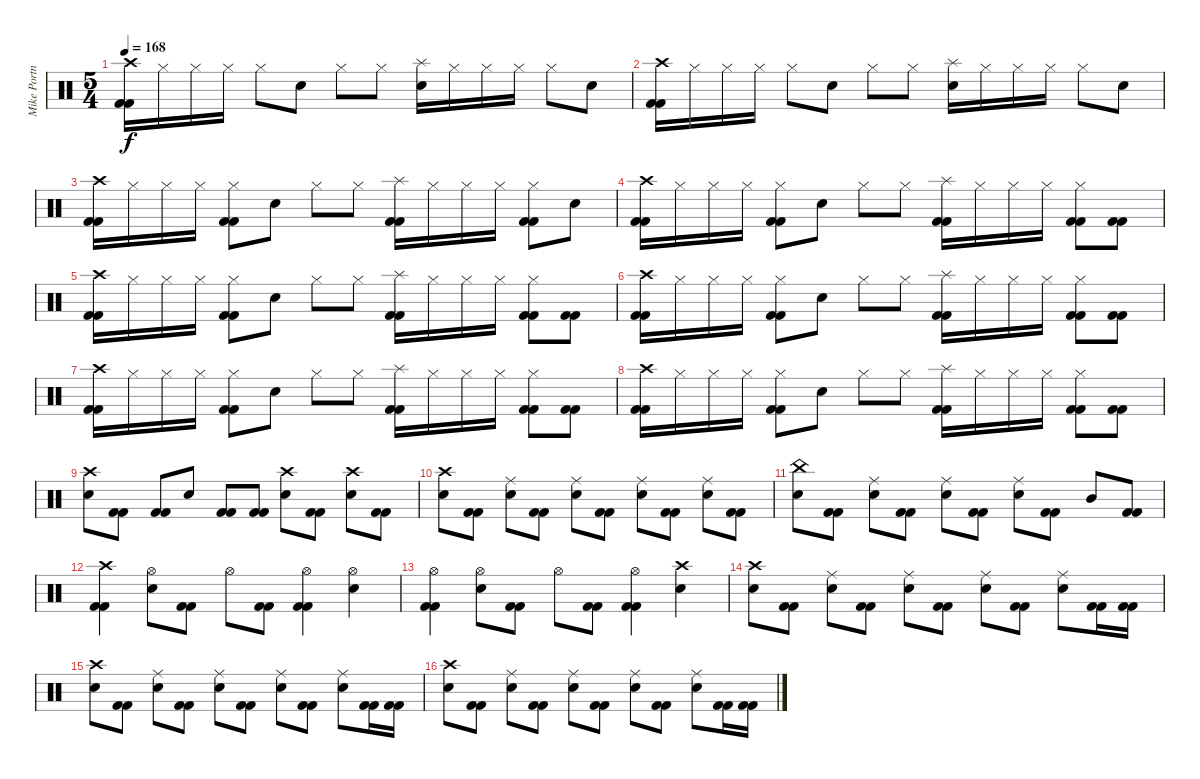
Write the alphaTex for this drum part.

\track ("Mike Portnoy - Drum" "Mike Portn") {instrument percussion}
\staff {score}
\articulation defaults
\ts (5 4)
\tempo 168
\clef neutral
\ks c
("Crash high (hit)" "Kick (hit) 2" "Kick (hit) 2").16{dy f} "Hi-Hat (closed)".16 "Hi-Hat (closed)".16 "Hi-Hat (closed)".16 "Hi-Hat (closed)".8 "Snare (hit) 2".8 "Hi-Hat (closed)".8 "Hi-Hat (closed)".8 ("Splash (hit)" "Snare (hit) 2").16 "Hi-Hat (closed)".16 "Hi-Hat (closed)".16 "Hi-Hat (closed)".16 "Hi-Hat (closed)".8 "Snare (hit) 2".8 |
("Crash high (hit)" "Kick (hit) 2" "Kick (hit) 2").16 "Hi-Hat (closed)".16 "Hi-Hat (closed)".16 "Hi-Hat (closed)".16 "Hi-Hat (closed)".8 "Snare (hit) 2".8 "Hi-Hat (closed)".8 "Hi-Hat (closed)".8 ("Splash (hit)" "Snare (hit) 2").16 "Hi-Hat (closed)".16 "Hi-Hat (closed)".16 "Hi-Hat (closed)".16 "Hi-Hat (closed)".8 "Snare (hit) 2".8 |
("Crash high (hit)" "Kick (hit) 2" "Kick (hit) 2").16 "Hi-Hat (closed)".16 "Hi-Hat (closed)".16 "Hi-Hat (closed)".16 ("Hi-Hat (closed)" "Kick (hit) 2" "Kick (hit) 2").8 "Snare (hit) 2".8 "Hi-Hat (closed)".8 "Hi-Hat (closed)".8 ("Splash (hit)" "Kick (hit) 2" "Kick (hit) 2").16 "Hi-Hat (closed)".16 "Hi-Hat (closed)".16 "Hi-Hat (closed)".16 ("Hi-Hat (closed)" "Kick (hit) 2" "Kick (hit) 2").8 "Snare (hit) 2".8 |
("Crash high (hit)" "Kick (hit) 2" "Kick (hit) 2").16 "Hi-Hat (closed)".16 "Hi-Hat (closed)".16 "Hi-Hat (closed)".16 ("Hi-Hat (closed)" "Kick (hit) 2" "Kick (hit) 2").8 "Snare (hit) 2".8 "Hi-Hat (closed)".8 "Hi-Hat (closed)".8 ("Splash (hit)" "Kick (hit) 2" "Kick (hit) 2").16 "Hi-Hat (closed)".16 "Hi-Hat (closed)".16 "Hi-Hat (closed)".16 ("Hi-Hat (closed)" "Kick (hit) 2" "Kick (hit) 2").8 ("Kick (hit) 2" "Kick (hit) 2").8 |
("Crash high (hit)" "Kick (hit) 2" "Kick (hit) 2").16 "Hi-Hat (closed)".16 "Hi-Hat (closed)".16 "Hi-Hat (closed)".16 ("Hi-Hat (closed)" "Kick (hit) 2" "Kick (hit) 2").8 "Snare (hit) 2".8 "Hi-Hat (closed)".8 "Hi-Hat (closed)".8 ("Splash (hit)" "Kick (hit) 2" "Kick (hit) 2").16 "Hi-Hat (closed)".16 "Hi-Hat (closed)".16 "Hi-Hat (closed)".16 ("Hi-Hat (closed)" "Kick (hit) 2" "Kick (hit) 2").8 ("Kick (hit) 2" "Kick (hit) 2").8 |
("Crash high (hit)" "Kick (hit) 2" "Kick (hit) 2").16 "Hi-Hat (closed)".16 "Hi-Hat (closed)".16 "Hi-Hat (closed)".16 ("Hi-Hat (closed)" "Kick (hit) 2" "Kick (hit) 2").8 "Snare (hit) 2".8 "Hi-Hat (closed)".8 "Hi-Hat (closed)".8 ("Splash (hit)" "Kick (hit) 2" "Kick (hit) 2").16 "Hi-Hat (closed)".16 "Hi-Hat (closed)".16 "Hi-Hat (closed)".16 ("Hi-Hat (closed)" "Kick (hit) 2" "Kick (hit) 2").8 ("Kick (hit) 2" "Kick (hit) 2").8 |
("Crash high (hit)" "Kick (hit) 2" "Kick (hit) 2").16 "Hi-Hat (closed)".16 "Hi-Hat (closed)".16 "Hi-Hat (closed)".16 ("Hi-Hat (closed)" "Kick (hit) 2" "Kick (hit) 2").8 "Snare (hit) 2".8 "Hi-Hat (closed)".8 "Hi-Hat (closed)".8 ("Splash (hit)" "Kick (hit) 2" "Kick (hit) 2").16 "Hi-Hat (closed)".16 "Hi-Hat (closed)".16 "Hi-Hat (closed)".16 ("Hi-Hat (closed)" "Kick (hit) 2" "Kick (hit) 2").8 ("Kick (hit) 2" "Kick (hit) 2").8 |
("Crash high (hit)" "Kick (hit) 2" "Kick (hit) 2").16 "Hi-Hat (closed)".16 "Hi-Hat (closed)".16 "Hi-Hat (closed)".16 ("Hi-Hat (closed)" "Kick (hit) 2" "Kick (hit) 2").8 "Snare (hit) 2".8 "Hi-Hat (closed)".8 "Hi-Hat (closed)".8 ("Splash (hit)" "Kick (hit) 2" "Kick (hit) 2").16 "Hi-Hat (closed)".16 "Hi-Hat (closed)".16 "Hi-Hat (closed)".16 ("Hi-Hat (closed)" "Kick (hit) 2" "Kick (hit) 2").8 ("Kick (hit) 2" "Kick (hit) 2").8 |
("Crash high (hit)" "Snare (hit) 2").8 ("Kick (hit) 2" "Kick (hit) 2").8 ("Kick (hit) 2" "Kick (hit) 2").8 "Snare (hit) 2".8 ("Kick (hit) 2" "Kick (hit) 2").8 ("Kick (hit) 2" "Kick (hit) 2").8 ("Crash high (hit)" "Snare (hit) 2").8 ("Kick (hit) 2" "Kick (hit) 2").8 ("Crash high (hit)" "Snare (hit) 2").8 ("Kick (hit) 2" "Kick (hit) 2").8 |
("Crash high (hit)" "Snare (hit) 2").8 ("Kick (hit) 2" "Kick (hit) 2").8 ("Ride (middle)" "Snare (hit) 2").8 ("Kick (hit) 2" "Kick (hit) 2").8 ("Ride (middle)" "Snare (hit) 2").8 ("Kick (hit) 2" "Kick (hit) 2").8 ("Ride (middle)" "Snare (hit) 2").8 ("Kick (hit) 2" "Kick (hit) 2").8 ("Ride (middle)" "Snare (hit) 2").8 ("Kick (hit) 2" "Kick (hit) 2").8 |
("China (hit)" "Snare (hit) 2").8 ("Kick (hit) 2" "Kick (hit) 2").8 ("Ride (middle)" "Snare (hit) 2").8 ("Kick (hit) 2" "Kick (hit) 2").8 ("Ride (middle)" "Snare (hit) 2").8 ("Kick (hit) 2" "Kick (hit) 2").8 ("Ride (middle)" "Snare (hit) 2").8 ("Kick (hit) 2" "Kick (hit) 2").8 "Mid Tom (hit)".8 ("Kick (hit) 2" "Kick (hit) 2").8 |
("Crash high (hit)" "Kick (hit) 2" "Kick (hit) 2").4 ("Hi-Hat (open)" "Snare (hit) 2").8 ("Kick (hit) 2" "Kick (hit) 2").8 "Hi-Hat (open)".8 ("Kick (hit) 2" "Kick (hit) 2").8 ("Hi-Hat (open)" "Kick (hit) 2" "Kick (hit) 2").4 ("Hi-Hat (open)" "Snare (hit) 2").4 |
("Hi-Hat (open)" "Kick (hit) 2" "Kick (hit) 2").4 ("Hi-Hat (open)" "Snare (hit) 2").8 ("Kick (hit) 2" "Kick (hit) 2").8 "Hi-Hat (open)".8 ("Kick (hit) 2" "Kick (hit) 2").8 ("Hi-Hat (open)" "Kick (hit) 2" "Kick (hit) 2").4 ("Crash high (hit)" "Snare (hit) 2").4 |
("Crash high (hit)" "Snare (hit) 2").8 ("Kick (hit) 2" "Kick (hit) 2").8 ("Ride (middle)" "Snare (hit) 2").8 ("Kick (hit) 2" "Kick (hit) 2").8 ("Ride (middle)" "Snare (hit) 2").8 ("Kick (hit) 2" "Kick (hit) 2").8 ("Ride (middle)" "Snare (hit) 2").8 ("Kick (hit) 2" "Kick (hit) 2").8 ("Ride (middle)" "Snare (hit) 2").8 ("Kick (hit) 2" "Kick (hit) 2").16 ("Kick (hit) 2" "Kick (hit) 2").16 |
("Crash high (hit)" "Snare (hit) 2").8 ("Kick (hit) 2" "Kick (hit) 2").8 ("Ride (middle)" "Snare (hit) 2").8 ("Kick (hit) 2" "Kick (hit) 2").8 ("Ride (middle)" "Snare (hit) 2").8 ("Kick (hit) 2" "Kick (hit) 2").8 ("Ride (middle)" "Snare (hit) 2").8 ("Kick (hit) 2" "Kick (hit) 2").8 ("Ride (middle)" "Snare (hit) 2").8 ("Kick (hit) 2" "Kick (hit) 2").16 ("Kick (hit) 2" "Kick (hit) 2").16 |
("Crash high (hit)" "Snare (hit) 2").8 ("Kick (hit) 2" "Kick (hit) 2").8 ("Ride (middle)" "Snare (hit) 2").8 ("Kick (hit) 2" "Kick (hit) 2").8 ("Ride (middle)" "Snare (hit) 2").8 ("Kick (hit) 2" "Kick (hit) 2").8 ("Ride (middle)" "Snare (hit) 2").8 ("Kick (hit) 2" "Kick (hit) 2").8 ("Ride (middle)" "Snare (hit) 2").8 ("Kick (hit) 2" "Kick (hit) 2").16 ("Kick (hit) 2" "Kick (hit) 2").16
